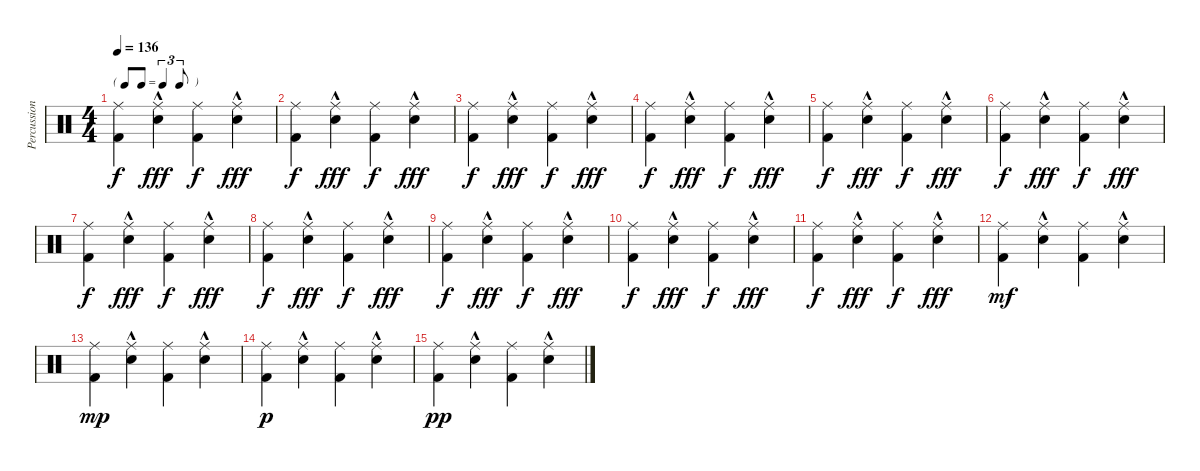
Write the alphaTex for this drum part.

\track ("Percussion" "Percussion") {instrument percussion}
\staff {score}
\articulation defaults
\ts (4 4)
\tf triplet8th
\tempo 136
\clef neutral
\ks c
("Kick (hit) 2" "Ride (middle)").4{dy f} ("Ride (middle)" "Electric Snare (hit)"{hac}).4{dy fff} ("Ride (middle)" "Kick (hit) 2").4{dy f} ("Ride (middle)" "Electric Snare (hit)"{hac}).4{dy fff} |
("Kick (hit) 2" "Ride (middle)").4{dy f} ("Ride (middle)" "Electric Snare (hit)"{hac}).4{dy fff} ("Ride (middle)" "Kick (hit) 2").4{dy f} ("Ride (middle)" "Electric Snare (hit)"{hac}).4{dy fff} |
("Kick (hit) 2" "Ride (middle)").4{dy f} ("Ride (middle)" "Electric Snare (hit)"{hac}).4{dy fff} ("Ride (middle)" "Kick (hit) 2").4{dy f} ("Ride (middle)" "Electric Snare (hit)"{hac}).4{dy fff} |
("Kick (hit) 2" "Ride (middle)").4{dy f} ("Ride (middle)" "Electric Snare (hit)"{hac}).4{dy fff} ("Ride (middle)" "Kick (hit) 2").4{dy f} ("Ride (middle)" "Electric Snare (hit)"{hac}).4{dy fff} |
("Kick (hit) 2" "Ride (middle)").4{dy f} ("Ride (middle)" "Electric Snare (hit)"{hac}).4{dy fff} ("Ride (middle)" "Kick (hit) 2").4{dy f} ("Ride (middle)" "Electric Snare (hit)"{hac}).4{dy fff} |
("Kick (hit) 2" "Ride (middle)").4{dy f} ("Ride (middle)" "Electric Snare (hit)"{hac}).4{dy fff} ("Ride (middle)" "Kick (hit) 2").4{dy f} ("Ride (middle)" "Electric Snare (hit)"{hac}).4{dy fff} |
("Kick (hit) 2" "Ride (middle)").4{dy f} ("Ride (middle)" "Electric Snare (hit)"{hac}).4{dy fff} ("Ride (middle)" "Kick (hit) 2").4{dy f} ("Ride (middle)" "Electric Snare (hit)"{hac}).4{dy fff} |
("Kick (hit) 2" "Ride (middle)").4{dy f} ("Ride (middle)" "Electric Snare (hit)"{hac}).4{dy fff} ("Ride (middle)" "Kick (hit) 2").4{dy f} ("Ride (middle)" "Electric Snare (hit)"{hac}).4{dy fff} |
("Kick (hit) 2" "Ride (middle)").4{dy f} ("Ride (middle)" "Electric Snare (hit)"{hac}).4{dy fff} ("Ride (middle)" "Kick (hit) 2").4{dy f} ("Ride (middle)" "Electric Snare (hit)"{hac}).4{dy fff} |
("Kick (hit) 2" "Ride (middle)").4{dy f} ("Ride (middle)" "Electric Snare (hit)"{hac}).4{dy fff} ("Ride (middle)" "Kick (hit) 2").4{dy f} ("Ride (middle)" "Electric Snare (hit)"{hac}).4{dy fff} |
("Kick (hit) 2" "Ride (middle)").4{dy f} ("Ride (middle)" "Electric Snare (hit)"{hac}).4{dy fff} ("Ride (middle)" "Kick (hit) 2").4{dy f} ("Ride (middle)" "Electric Snare (hit)"{hac}).4{dy fff} |
("Kick (hit) 2" "Ride (middle)").4{dy mf} ("Ride (middle)" "Electric Snare (hit)"{hac}).4 ("Ride (middle)" "Kick (hit) 2").4 ("Ride (middle)" "Electric Snare (hit)"{hac}).4 |
("Kick (hit) 2" "Ride (middle)").4{dy mp} ("Ride (middle)" "Electric Snare (hit)"{hac}).4 ("Ride (middle)" "Kick (hit) 2").4 ("Ride (middle)" "Electric Snare (hit)"{hac}).4 |
("Kick (hit) 2" "Ride (middle)").4{dy p} ("Ride (middle)" "Electric Snare (hit)"{hac}).4 ("Ride (middle)" "Kick (hit) 2").4 ("Ride (middle)" "Electric Snare (hit)"{hac}).4 |
("Kick (hit) 2" "Ride (middle)").4{dy pp} ("Ride (middle)" "Electric Snare (hit)"{hac}).4 ("Ride (middle)" "Kick (hit) 2").4 ("Ride (middle)" "Electric Snare (hit)"{hac}).4
